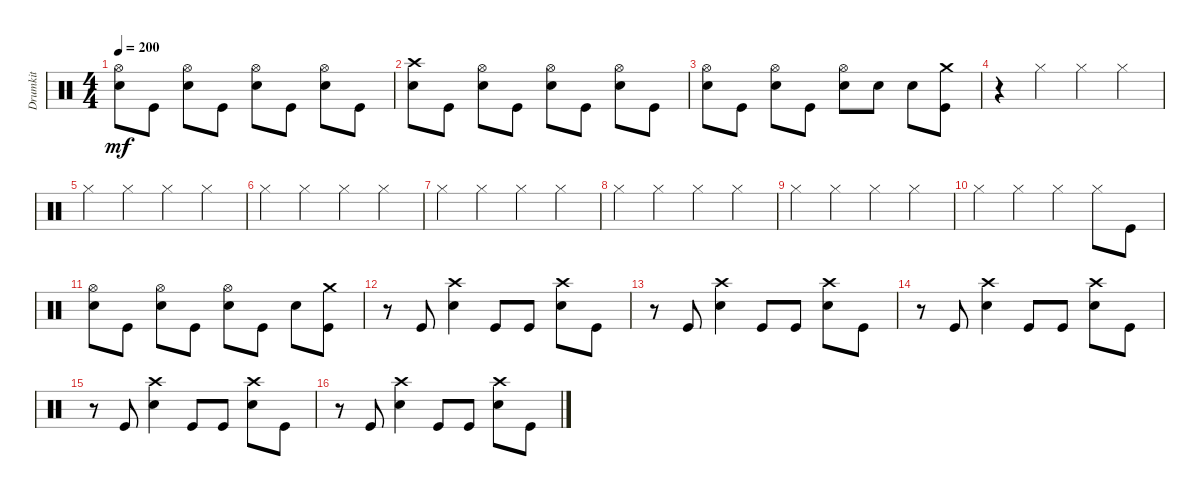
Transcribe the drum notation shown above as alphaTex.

\track ("Drumkit" "Drumkit") {instrument percussion}
\staff {score}
\articulation defaults
\ts (4 4)
\tempo 200
\clef neutral
\ks c
("Snare (hit) 2" "Hi-Hat (open)").8{dy mf} "Kick (hit)".8 ("Hi-Hat (open)" "Snare (hit) 2").8 "Kick (hit)".8 ("Hi-Hat (open)" "Snare (hit) 2").8 "Kick (hit)".8 ("Snare (hit) 2" "Hi-Hat (open)").8 "Kick (hit)".8 |
("Snare (hit) 2" "Crash high (hit)").8 "Kick (hit)".8 ("Hi-Hat (open)" "Snare (hit) 2").8 "Kick (hit)".8 ("Hi-Hat (open)" "Snare (hit) 2").8 "Kick (hit)".8 ("Snare (hit) 2" "Hi-Hat (open)").8 "Kick (hit)".8 |
("Snare (hit) 2" "Hi-Hat (open)").8 "Kick (hit)".8 ("Hi-Hat (open)" "Snare (hit) 2").8 "Kick (hit)".8 ("Hi-Hat (open)" "Snare (hit) 2").8 "Snare (hit) 2".8 "Snare (hit) 2".8 ("Kick (hit)" "Crash medium (hit)").8 |
r.4 "Hi-Hat (closed)".4 "Hi-Hat (closed)".4 "Hi-Hat (closed)".4 |
"Hi-Hat (closed)".4 "Hi-Hat (closed)".4 "Hi-Hat (closed)".4 "Hi-Hat (closed)".4 |
"Hi-Hat (closed)".4 "Hi-Hat (closed)".4 "Hi-Hat (closed)".4 "Hi-Hat (closed)".4 |
"Hi-Hat (closed)".4 "Hi-Hat (closed)".4 "Hi-Hat (closed)".4 "Hi-Hat (closed)".4 |
"Hi-Hat (closed)".4 "Hi-Hat (closed)".4 "Hi-Hat (closed)".4 "Hi-Hat (closed)".4 |
"Hi-Hat (closed)".4 "Hi-Hat (closed)".4 "Hi-Hat (closed)".4 "Hi-Hat (closed)".4 |
"Hi-Hat (closed)".4 "Hi-Hat (closed)".4 "Hi-Hat (closed)".4 "Hi-Hat (closed)".8 "Kick (hit)".8 |
("Hi-Hat (open)" "Snare (hit) 2").8 "Kick (hit)".8 ("Hi-Hat (open)" "Snare (hit) 2").8 "Kick (hit)".8 ("Snare (hit) 2" "Hi-Hat (open)").8 "Kick (hit)".8 "Snare (hit) 2".8 ("Kick (hit)" "Crash medium (hit)").8 |
r.8 "Kick (hit)".8 ("Snare (hit) 2" "Crash high (hit)").4 "Kick (hit)".8 "Kick (hit)".8 ("Snare (hit) 2" "Crash high (hit)").8 "Kick (hit)".8 |
r.8 "Kick (hit)".8 ("Snare (hit) 2" "Crash high (hit)").4 "Kick (hit)".8 "Kick (hit)".8 ("Snare (hit) 2" "Crash high (hit)").8 "Kick (hit)".8 |
r.8 "Kick (hit)".8 ("Snare (hit) 2" "Crash high (hit)").4 "Kick (hit)".8 "Kick (hit)".8 ("Snare (hit) 2" "Crash high (hit)").8 "Kick (hit)".8 |
r.8 "Kick (hit)".8 ("Snare (hit) 2" "Crash high (hit)").4 "Kick (hit)".8 "Kick (hit)".8 ("Snare (hit) 2" "Crash high (hit)").8 "Kick (hit)".8 |
r.8 "Kick (hit)".8 ("Snare (hit) 2" "Crash high (hit)").4 "Kick (hit)".8 "Kick (hit)".8 ("Snare (hit) 2" "Crash high (hit)").8 "Kick (hit)".8
